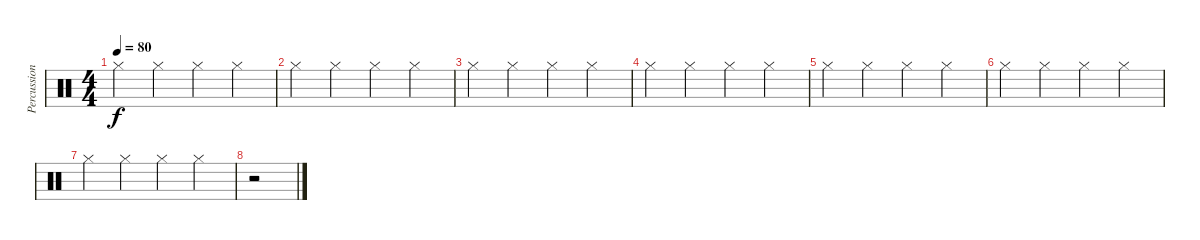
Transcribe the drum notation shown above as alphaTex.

\track ("Percussion" "Percussion") {instrument percussion}
\staff {score}
\articulation defaults
\ts (4 4)
\tempo 80
\clef neutral
\ks c "Hi-Hat (closed)".4{dy f} "Hi-Hat (closed)".4 "Hi-Hat (closed)".4 "Hi-Hat (closed)".4
|
"Hi-Hat (closed)".4 "Hi-Hat (closed)".4 "Hi-Hat (closed)".4 "Hi-Hat (closed)".4 |
"Hi-Hat (closed)".4 "Hi-Hat (closed)".4 "Hi-Hat (closed)".4 "Hi-Hat (closed)".4 |
"Hi-Hat (closed)".4 "Hi-Hat (closed)".4 "Hi-Hat (closed)".4 "Hi-Hat (closed)".4 |
"Hi-Hat (closed)".4 "Hi-Hat (closed)".4 "Hi-Hat (closed)".4 "Hi-Hat (closed)".4 |
"Hi-Hat (closed)".4 "Hi-Hat (closed)".4 "Hi-Hat (closed)".4 "Hi-Hat (closed)".4 |
"Hi-Hat (closed)".4 "Hi-Hat (closed)".4 "Hi-Hat (closed)".4 "Hi-Hat (closed)".4 |
r.2
